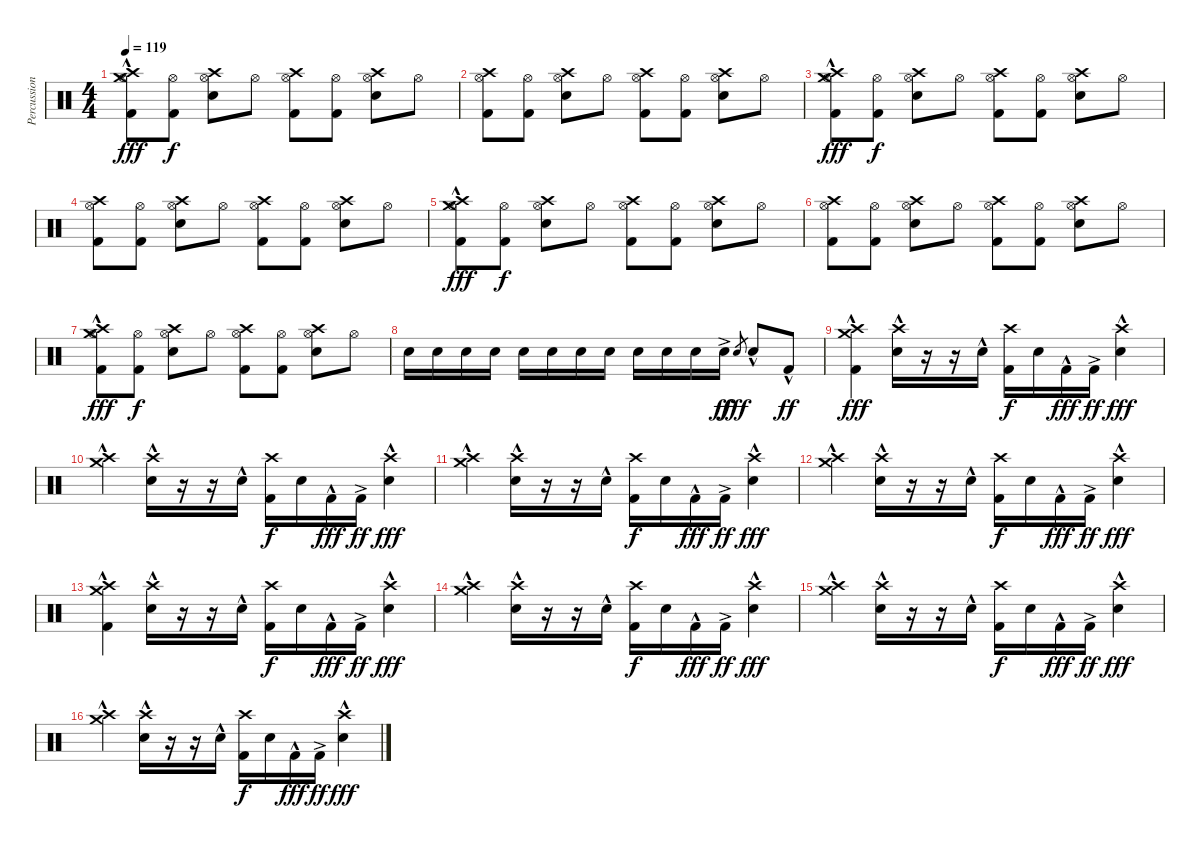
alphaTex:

\track ("Percussion" "Percussion") {instrument percussion}
\staff {score}
\articulation defaults
\ts (4 4)
\tempo 119
\clef neutral
\ks c
("Crash high (hit)"{hac} "Hi-Hat (open)"{hac} "Crash medium (hit)"{hac} "Kick (hit) 2").8{dy fff} ("Hi-Hat (open)" "Kick (hit) 2").8{dy f} ("Crash high (hit)" "Hi-Hat (open)" "Electric Snare (hit)").8 "Hi-Hat (open)".8 ("Crash high (hit)" "Hi-Hat (open)" "Kick (hit) 2").8 ("Hi-Hat (open)" "Kick (hit) 2").8 ("Crash high (hit)" "Hi-Hat (open)" "Electric Snare (hit)").8 "Hi-Hat (open)".8 |
("Crash high (hit)" "Hi-Hat (open)" "Kick (hit) 2").8 ("Hi-Hat (open)" "Kick (hit) 2").8 ("Crash high (hit)" "Hi-Hat (open)" "Electric Snare (hit)").8 "Hi-Hat (open)".8 ("Crash high (hit)" "Hi-Hat (open)" "Kick (hit) 2").8 ("Hi-Hat (open)" "Kick (hit) 2").8 ("Crash high (hit)" "Hi-Hat (open)" "Electric Snare (hit)").8 "Hi-Hat (open)".8 |
("Crash high (hit)"{hac} "Hi-Hat (open)"{hac} "Crash medium (hit)"{hac} "Kick (hit) 2").8{dy fff} ("Hi-Hat (open)" "Kick (hit) 2").8{dy f} ("Crash high (hit)" "Hi-Hat (open)" "Electric Snare (hit)").8 "Hi-Hat (open)".8 ("Crash high (hit)" "Hi-Hat (open)" "Kick (hit) 2").8 ("Hi-Hat (open)" "Kick (hit) 2").8 ("Crash high (hit)" "Hi-Hat (open)" "Electric Snare (hit)").8 "Hi-Hat (open)".8 |
("Crash high (hit)" "Hi-Hat (open)" "Kick (hit) 2").8 ("Hi-Hat (open)" "Kick (hit) 2").8 ("Crash high (hit)" "Hi-Hat (open)" "Electric Snare (hit)").8 "Hi-Hat (open)".8 ("Crash high (hit)" "Hi-Hat (open)" "Kick (hit) 2").8 ("Hi-Hat (open)" "Kick (hit) 2").8 ("Crash high (hit)" "Hi-Hat (open)" "Electric Snare (hit)").8 "Hi-Hat (open)".8 |
("Crash high (hit)"{hac} "Hi-Hat (open)"{hac} "Crash medium (hit)"{hac} "Kick (hit) 2").8{dy fff} ("Hi-Hat (open)" "Kick (hit) 2").8{dy f} ("Crash high (hit)" "Hi-Hat (open)" "Electric Snare (hit)").8 "Hi-Hat (open)".8 ("Crash high (hit)" "Hi-Hat (open)" "Kick (hit) 2").8 ("Hi-Hat (open)" "Kick (hit) 2").8 ("Crash high (hit)" "Hi-Hat (open)" "Electric Snare (hit)").8 "Hi-Hat (open)".8 |
("Crash high (hit)" "Hi-Hat (open)" "Kick (hit) 2").8 ("Hi-Hat (open)" "Kick (hit) 2").8 ("Crash high (hit)" "Hi-Hat (open)" "Electric Snare (hit)").8 "Hi-Hat (open)".8 ("Crash high (hit)" "Hi-Hat (open)" "Kick (hit) 2").8 ("Hi-Hat (open)" "Kick (hit) 2").8 ("Crash high (hit)" "Hi-Hat (open)" "Electric Snare (hit)").8 "Hi-Hat (open)".8 |
("Crash high (hit)"{hac} "Hi-Hat (open)"{hac} "Crash medium (hit)"{hac} "Kick (hit) 2").8{dy fff} ("Hi-Hat (open)" "Kick (hit) 2").8{dy f} ("Crash high (hit)" "Hi-Hat (open)" "Electric Snare (hit)").8 "Hi-Hat (open)".8 ("Crash high (hit)" "Hi-Hat (open)" "Kick (hit) 2").8 ("Hi-Hat (open)" "Kick (hit) 2").8 ("Crash high (hit)" "Hi-Hat (open)" "Electric Snare (hit)").8 "Hi-Hat (open)".8 |
"Electric Snare (hit)".16 "Electric Snare (hit)".16 "Electric Snare (hit)".16 "Electric Snare (hit)".16 "Electric Snare (hit)".16 "Electric Snare (hit)".16 "Electric Snare (hit)".16 "Electric Snare (hit)".16 "Electric Snare (hit)".16 "Electric Snare (hit)".16 "Electric Snare (hit)".16 "Electric Snare (hit)"{ac}.16{dy ff} "Electric Snare (hit)".8{gr dy fff} "Electric Snare (hit)"{hac}.8 "Kick (hit) 2"{hac}.8{dy ff} |
("Crash high (hit)"{hac} "Crash medium (hit)"{hac} "Kick (hit) 2").4{dy fff} ("Crash high (hit)" "Electric Snare (hit)"{hac}).16 r.16 r.16 "Electric Snare (hit)"{hac}.16 ("Crash high (hit)" "Kick (hit) 2").16{dy f} "Electric Snare (hit)".16 "Kick (hit) 2"{hac}.16{dy fff} "Kick (hit) 2"{ac}.16{dy ff} ("Crash high (hit)" "Electric Snare (hit)"{hac}).4{dy fff} |
("Crash high (hit)" "Crash medium (hit)"{hac}).4 ("Crash high (hit)" "Electric Snare (hit)"{hac}).16 r.16 r.16 "Electric Snare (hit)"{hac}.16 ("Crash high (hit)" "Kick (hit) 2").16{dy f} "Electric Snare (hit)".16 "Kick (hit) 2"{hac}.16{dy fff} "Kick (hit) 2"{ac}.16{dy ff} ("Crash high (hit)" "Electric Snare (hit)"{hac}).4{dy fff} |
("Crash high (hit)" "Crash medium (hit)"{hac}).4 ("Crash high (hit)" "Electric Snare (hit)"{hac}).16 r.16 r.16 "Electric Snare (hit)"{hac}.16 ("Crash high (hit)" "Kick (hit) 2").16{dy f} "Electric Snare (hit)".16 "Kick (hit) 2"{hac}.16{dy fff} "Kick (hit) 2"{ac}.16{dy ff} ("Crash high (hit)" "Electric Snare (hit)"{hac}).4{dy fff} |
("Crash high (hit)" "Crash medium (hit)"{hac}).4 ("Crash high (hit)" "Electric Snare (hit)"{hac}).16 r.16 r.16 "Electric Snare (hit)"{hac}.16 ("Crash high (hit)" "Kick (hit) 2").16{dy f} "Electric Snare (hit)".16 "Kick (hit) 2"{hac}.16{dy fff} "Kick (hit) 2"{ac}.16{dy ff} ("Crash high (hit)" "Electric Snare (hit)"{hac}).4{dy fff} |
("Crash high (hit)" "Crash medium (hit)"{hac} "Kick (hit) 2").4 ("Crash high (hit)" "Electric Snare (hit)"{hac}).16 r.16 r.16 "Electric Snare (hit)"{hac}.16 ("Crash high (hit)" "Kick (hit) 2").16{dy f} "Electric Snare (hit)".16 "Kick (hit) 2"{hac}.16{dy fff} "Kick (hit) 2"{ac}.16{dy ff} ("Crash high (hit)" "Electric Snare (hit)"{hac}).4{dy fff} |
("Crash high (hit)" "Crash medium (hit)"{hac}).4 ("Crash high (hit)" "Electric Snare (hit)"{hac}).16 r.16 r.16 "Electric Snare (hit)"{hac}.16 ("Crash high (hit)" "Kick (hit) 2").16{dy f} "Electric Snare (hit)".16 "Kick (hit) 2"{hac}.16{dy fff} "Kick (hit) 2"{ac}.16{dy ff} ("Crash high (hit)" "Electric Snare (hit)"{hac}).4{dy fff} |
("Crash high (hit)" "Crash medium (hit)"{hac}).4 ("Crash high (hit)" "Electric Snare (hit)"{hac}).16 r.16 r.16 "Electric Snare (hit)"{hac}.16 ("Crash high (hit)" "Kick (hit) 2").16{dy f} "Electric Snare (hit)".16 "Kick (hit) 2"{hac}.16{dy fff} "Kick (hit) 2"{ac}.16{dy ff} ("Crash high (hit)" "Electric Snare (hit)"{hac}).4{dy fff} |
("Crash high (hit)" "Crash medium (hit)"{hac}).4 ("Crash high (hit)" "Electric Snare (hit)"{hac}).16 r.16 r.16 "Electric Snare (hit)"{hac}.16 ("Crash high (hit)" "Kick (hit) 2").16{dy f} "Electric Snare (hit)".16 "Kick (hit) 2"{hac}.16{dy fff} "Kick (hit) 2"{ac}.16{dy ff} ("Crash high (hit)" "Electric Snare (hit)"{hac}).4{dy fff}
